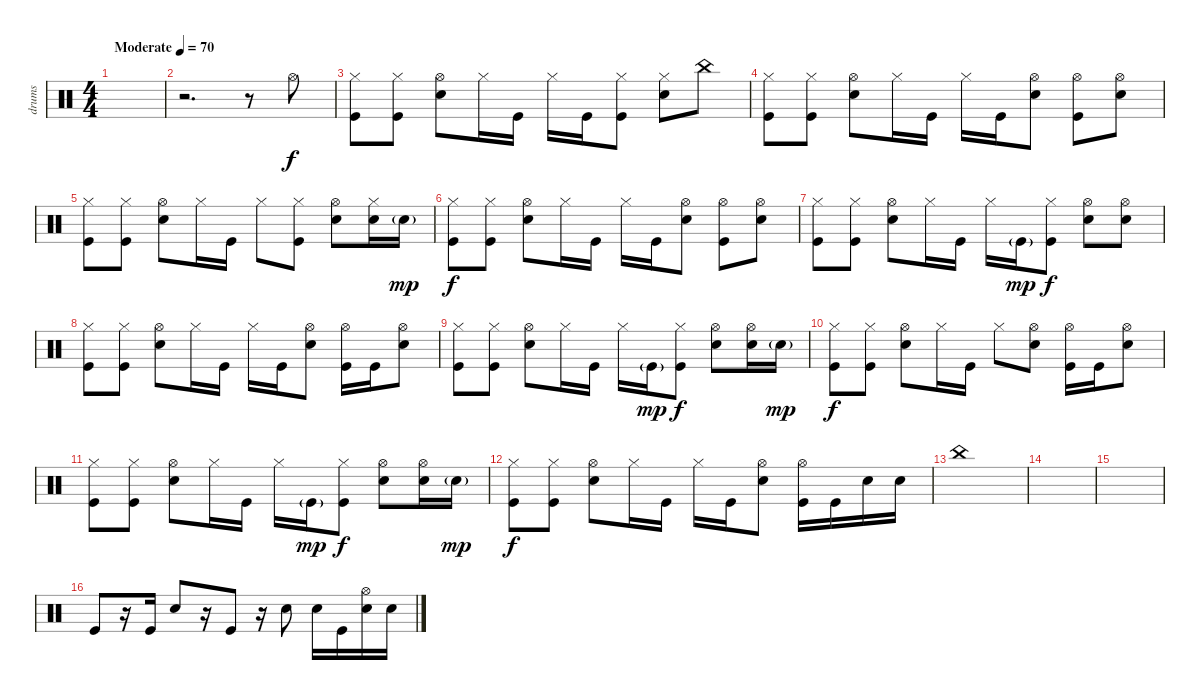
\track ("drums" "drums") {instrument percussion}
\staff {score}
\articulation defaults
\ts (4 4)
\tempo (70 "Moderate")
\clef neutral
\ks c
|
r.2{d} r.8 "Hi-Hat (open)".8 |
("Hi-Hat (closed)" "Kick (hit)").8 ("Hi-Hat (closed)" "Kick (hit)").8 ("Hi-Hat (open)" "Snare (hit) 2").8 "Hi-Hat (closed)".16 "Kick (hit)".16 "Hi-Hat (closed)".16 "Kick (hit)".16 ("Hi-Hat (closed)" "Kick (hit)").8 ("Hi-Hat (closed)" "Snare (hit) 2").8 "China (hit)".8 |
("Hi-Hat (closed)" "Kick (hit)").8 ("Hi-Hat (closed)" "Kick (hit)").8 ("Hi-Hat (open)" "Snare (hit) 2").8 "Hi-Hat (closed)".16 "Kick (hit)".16 "Hi-Hat (closed)".16 "Kick (hit)".16 ("Hi-Hat (open)" "Snare (hit) 2").8 ("Hi-Hat (open)" "Kick (hit)").8 ("Hi-Hat (open)" "Snare (hit) 2").8 |
("Hi-Hat (closed)" "Kick (hit)").8 ("Hi-Hat (closed)" "Kick (hit)").8 ("Hi-Hat (open)" "Snare (hit) 2").8 "Hi-Hat (closed)".16 "Kick (hit)".16 "Hi-Hat (closed)".8 ("Hi-Hat (closed)" "Kick (hit)").8 ("Hi-Hat (open)" "Snare (hit) 2").8 ("Hi-Hat (closed)" "Snare (hit) 2").16 "Snare (hit) 2"{g}.16{dy mp} |
("Hi-Hat (closed)" "Kick (hit)").8{dy f} ("Hi-Hat (closed)" "Kick (hit)").8 ("Hi-Hat (open)" "Snare (hit) 2").8 "Hi-Hat (closed)".16 "Kick (hit)".16 "Hi-Hat (closed)".16 "Kick (hit)".16 ("Hi-Hat (open)" "Snare (hit) 2").8 ("Hi-Hat (open)" "Kick (hit)").8 ("Hi-Hat (open)" "Snare (hit) 2").8 |
("Hi-Hat (closed)" "Kick (hit)").8 ("Hi-Hat (closed)" "Kick (hit)").8 ("Hi-Hat (open)" "Snare (hit) 2").8 "Hi-Hat (closed)".16 "Kick (hit)".16 "Hi-Hat (closed)".16 "Kick (hit)"{g}.16{dy mp} ("Hi-Hat (closed)" "Kick (hit)").8{dy f} ("Hi-Hat (open)" "Snare (hit) 2").8 ("Hi-Hat (open)" "Snare (hit) 2").8 |
("Hi-Hat (closed)" "Kick (hit)").8 ("Hi-Hat (closed)" "Kick (hit)").8 ("Hi-Hat (open)" "Snare (hit) 2").8 "Hi-Hat (closed)".16 "Kick (hit)".16 "Hi-Hat (closed)".16 "Kick (hit)".16 ("Hi-Hat (open)" "Snare (hit) 2").8 ("Hi-Hat (open)" "Kick (hit)").16 "Kick (hit)".16 ("Hi-Hat (open)" "Snare (hit) 2").8 |
("Hi-Hat (closed)" "Kick (hit)").8 ("Hi-Hat (closed)" "Kick (hit)").8 ("Hi-Hat (open)" "Snare (hit) 2").8 "Hi-Hat (closed)".16 "Kick (hit)".16 "Hi-Hat (closed)".16 "Kick (hit)"{g}.16{dy mp} ("Hi-Hat (closed)" "Kick (hit)").8{dy f} ("Hi-Hat (open)" "Snare (hit) 2").8 ("Hi-Hat (open)" "Snare (hit) 2").16 "Snare (hit) 2"{g}.16{dy mp} |
("Hi-Hat (closed)" "Kick (hit)").8{dy f} ("Hi-Hat (closed)" "Kick (hit)").8 ("Hi-Hat (open)" "Snare (hit) 2").8 "Hi-Hat (closed)".16 "Kick (hit)".16 "Hi-Hat (closed)".8 ("Hi-Hat (open)" "Snare (hit) 2").8 ("Hi-Hat (open)" "Kick (hit)").16 "Kick (hit)".16 ("Hi-Hat (open)" "Snare (hit) 2").8 |
("Hi-Hat (closed)" "Kick (hit)").8 ("Hi-Hat (closed)" "Kick (hit)").8 ("Hi-Hat (open)" "Snare (hit) 2").8 "Hi-Hat (closed)".16 "Kick (hit)".16 "Hi-Hat (closed)".16 "Kick (hit)"{g}.16{dy mp} ("Hi-Hat (closed)" "Kick (hit)").8{dy f} ("Hi-Hat (open)" "Snare (hit) 2").8 ("Hi-Hat (open)" "Snare (hit) 2").16 "Snare (hit) 2"{g}.16{dy mp} |
("Hi-Hat (closed)" "Kick (hit)").8{dy f} ("Hi-Hat (closed)" "Kick (hit)").8 ("Hi-Hat (open)" "Snare (hit) 2").8 "Hi-Hat (closed)".16 "Kick (hit)".16 "Hi-Hat (closed)".16 "Kick (hit)".16 ("Hi-Hat (open)" "Snare (hit) 2").8 ("Hi-Hat (open)" "Kick (hit)").16 "Kick (hit)".16 "Snare (hit) 2".16 "Snare (hit) 2".16 |
"China (hit)".1 |
|
|
"Kick (hit)".8 r.16 "Kick (hit)".16 "Snare (hit) 2".8 r.16 "Kick (hit)".8 r.16 "Snare (hit) 2".8 "Snare (hit) 2".16 "Kick (hit)".16 ("Hi-Hat (open)" "Snare (hit) 2").16 "Snare (hit) 2".16
